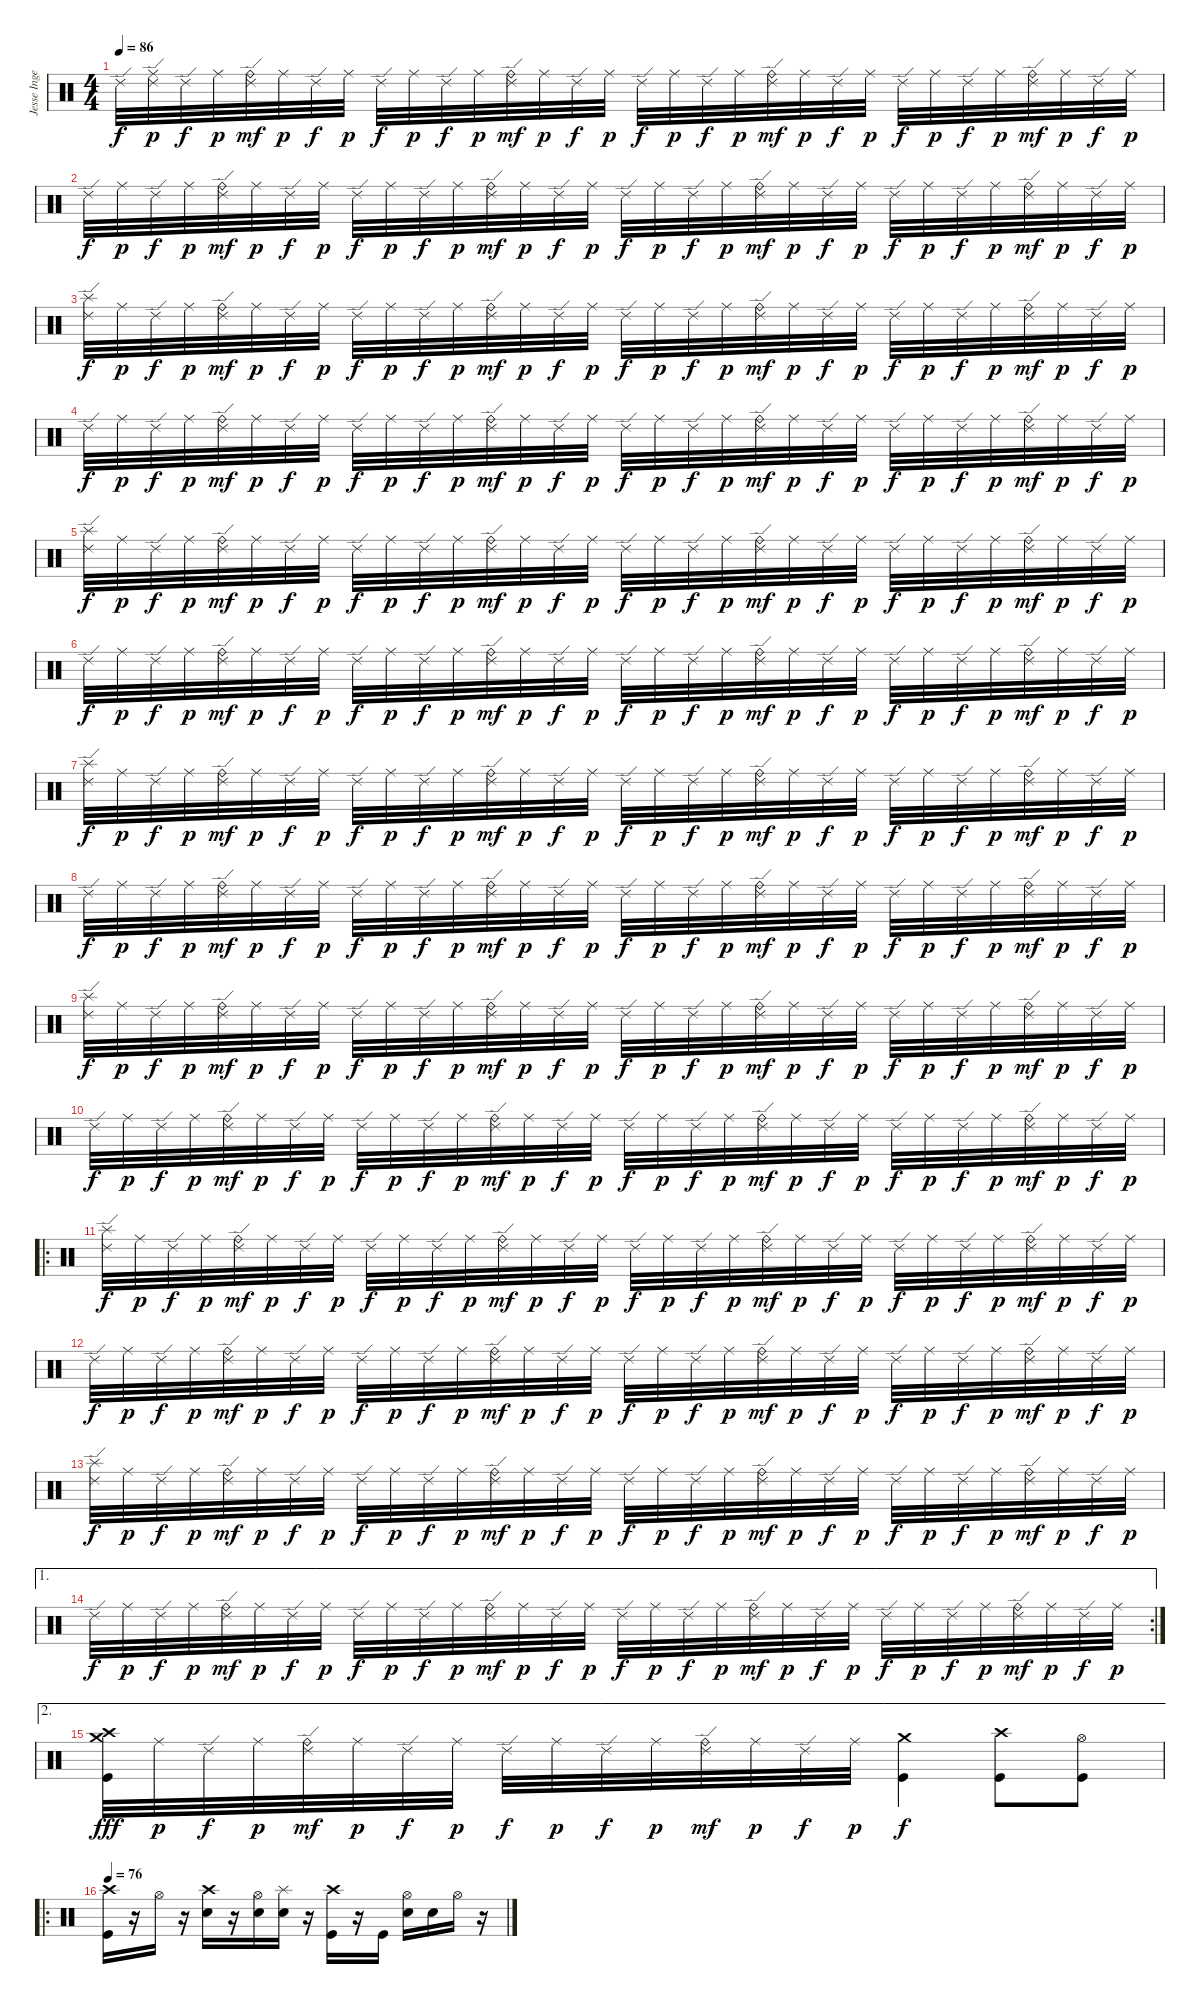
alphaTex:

\track ("Jesse Ingelevics" "Jesse Inge") {instrument percussion}
\staff {score}
\articulation defaults
\ts (4 4)
\tempo 86
\clef neutral
\ks c "Ride (edge) 2".32{dy f}
("Ride (edge) 2" "Ride (middle)").32{dy p} "Ride (edge) 2".32{dy f} "Ride (middle)".32{dy p} ("Ride (edge) 2" "Ride (bell)").32{dy mf} "Ride (middle)".32{dy p} "Ride (edge) 2".32{dy f} "Ride (middle)".32{dy p} "Ride (edge) 2".32{dy f} "Ride (middle)".32{dy p} "Ride (edge) 2".32{dy f} "Ride (middle)".32{dy p} ("Ride (edge) 2" "Ride (bell)").32{dy mf} "Ride (middle)".32{dy p} "Ride (edge) 2".32{dy f} "Ride (middle)".32{dy p} "Ride (edge) 2".32{dy f} "Ride (middle)".32{dy p} "Ride (edge) 2".32{dy f} "Ride (middle)".32{dy p} ("Ride (edge) 2" "Ride (bell)").32{dy mf} "Ride (middle)".32{dy p} "Ride (edge) 2".32{dy f} "Ride (middle)".32{dy p} "Ride (edge) 2".32{dy f} "Ride (middle)".32{dy p} "Ride (edge) 2".32{dy f} "Ride (middle)".32{dy p} ("Ride (edge) 2" "Ride (bell)").32{dy mf} "Ride (middle)".32{dy p} "Ride (edge) 2".32{dy f} "Ride (middle)".32{dy p} |
"Ride (edge) 2".32{dy f} "Ride (middle)".32{dy p} "Ride (edge) 2".32{dy f} "Ride (middle)".32{dy p} ("Ride (edge) 2" "Ride (bell)").32{dy mf} "Ride (middle)".32{dy p} "Ride (edge) 2".32{dy f} "Ride (middle)".32{dy p} "Ride (edge) 2".32{dy f} "Ride (middle)".32{dy p} "Ride (edge) 2".32{dy f} "Ride (middle)".32{dy p} ("Ride (edge) 2" "Ride (bell)").32{dy mf} "Ride (middle)".32{dy p} "Ride (edge) 2".32{dy f} "Ride (middle)".32{dy p} "Ride (edge) 2".32{dy f} "Ride (middle)".32{dy p} "Ride (edge) 2".32{dy f} "Ride (middle)".32{dy p} ("Ride (edge) 2" "Ride (bell)").32{dy mf} "Ride (middle)".32{dy p} "Ride (edge) 2".32{dy f} "Ride (middle)".32{dy p} "Ride (edge) 2".32{dy f} "Ride (middle)".32{dy p} "Ride (edge) 2".32{dy f} "Ride (middle)".32{dy p} ("Ride (edge) 2" "Ride (bell)").32{dy mf} "Ride (middle)".32{dy p} "Ride (edge) 2".32{dy f} "Ride (middle)".32{dy p} |
("Splash (hit)" "Ride (edge) 2").32{dy f} "Ride (middle)".32{dy p} "Ride (edge) 2".32{dy f} "Ride (middle)".32{dy p} ("Ride (edge) 2" "Ride (bell)").32{dy mf} "Ride (middle)".32{dy p} "Ride (edge) 2".32{dy f} "Ride (middle)".32{dy p} "Ride (edge) 2".32{dy f} "Ride (middle)".32{dy p} "Ride (edge) 2".32{dy f} "Ride (middle)".32{dy p} ("Ride (edge) 2" "Ride (bell)").32{dy mf} "Ride (middle)".32{dy p} "Ride (edge) 2".32{dy f} "Ride (middle)".32{dy p} "Ride (edge) 2".32{dy f} "Ride (middle)".32{dy p} "Ride (edge) 2".32{dy f} "Ride (middle)".32{dy p} ("Ride (edge) 2" "Ride (bell)").32{dy mf} "Ride (middle)".32{dy p} "Ride (edge) 2".32{dy f} "Ride (middle)".32{dy p} "Ride (edge) 2".32{dy f} "Ride (middle)".32{dy p} "Ride (edge) 2".32{dy f} "Ride (middle)".32{dy p} ("Ride (edge) 2" "Ride (bell)").32{dy mf} "Ride (middle)".32{dy p} "Ride (edge) 2".32{dy f} "Ride (middle)".32{dy p} |
"Ride (edge) 2".32{dy f} "Ride (middle)".32{dy p} "Ride (edge) 2".32{dy f} "Ride (middle)".32{dy p} ("Ride (edge) 2" "Ride (bell)").32{dy mf} "Ride (middle)".32{dy p} "Ride (edge) 2".32{dy f} "Ride (middle)".32{dy p} "Ride (edge) 2".32{dy f} "Ride (middle)".32{dy p} "Ride (edge) 2".32{dy f} "Ride (middle)".32{dy p} ("Ride (edge) 2" "Ride (bell)").32{dy mf} "Ride (middle)".32{dy p} "Ride (edge) 2".32{dy f} "Ride (middle)".32{dy p} "Ride (edge) 2".32{dy f} "Ride (middle)".32{dy p} "Ride (edge) 2".32{dy f} "Ride (middle)".32{dy p} ("Ride (edge) 2" "Ride (bell)").32{dy mf} "Ride (middle)".32{dy p} "Ride (edge) 2".32{dy f} "Ride (middle)".32{dy p} "Ride (edge) 2".32{dy f} "Ride (middle)".32{dy p} "Ride (edge) 2".32{dy f} "Ride (middle)".32{dy p} ("Ride (edge) 2" "Ride (bell)").32{dy mf} "Ride (middle)".32{dy p} "Ride (edge) 2".32{dy f} "Ride (middle)".32{dy p} |
("Splash (hit)" "Ride (edge) 2").32{dy f} "Ride (middle)".32{dy p} "Ride (edge) 2".32{dy f} "Ride (middle)".32{dy p} ("Ride (edge) 2" "Ride (bell)").32{dy mf} "Ride (middle)".32{dy p} "Ride (edge) 2".32{dy f} "Ride (middle)".32{dy p} "Ride (edge) 2".32{dy f} "Ride (middle)".32{dy p} "Ride (edge) 2".32{dy f} "Ride (middle)".32{dy p} ("Ride (edge) 2" "Ride (bell)").32{dy mf} "Ride (middle)".32{dy p} "Ride (edge) 2".32{dy f} "Ride (middle)".32{dy p} "Ride (edge) 2".32{dy f} "Ride (middle)".32{dy p} "Ride (edge) 2".32{dy f} "Ride (middle)".32{dy p} ("Ride (edge) 2" "Ride (bell)").32{dy mf} "Ride (middle)".32{dy p} "Ride (edge) 2".32{dy f} "Ride (middle)".32{dy p} "Ride (edge) 2".32{dy f} "Ride (middle)".32{dy p} "Ride (edge) 2".32{dy f} "Ride (middle)".32{dy p} ("Ride (edge) 2" "Ride (bell)").32{dy mf} "Ride (middle)".32{dy p} "Ride (edge) 2".32{dy f} "Ride (middle)".32{dy p} |
"Ride (edge) 2".32{dy f} "Ride (middle)".32{dy p} "Ride (edge) 2".32{dy f} "Ride (middle)".32{dy p} ("Ride (edge) 2" "Ride (bell)").32{dy mf} "Ride (middle)".32{dy p} "Ride (edge) 2".32{dy f} "Ride (middle)".32{dy p} "Ride (edge) 2".32{dy f} "Ride (middle)".32{dy p} "Ride (edge) 2".32{dy f} "Ride (middle)".32{dy p} ("Ride (edge) 2" "Ride (bell)").32{dy mf} "Ride (middle)".32{dy p} "Ride (edge) 2".32{dy f} "Ride (middle)".32{dy p} "Ride (edge) 2".32{dy f} "Ride (middle)".32{dy p} "Ride (edge) 2".32{dy f} "Ride (middle)".32{dy p} ("Ride (edge) 2" "Ride (bell)").32{dy mf} "Ride (middle)".32{dy p} "Ride (edge) 2".32{dy f} "Ride (middle)".32{dy p} "Ride (edge) 2".32{dy f} "Ride (middle)".32{dy p} "Ride (edge) 2".32{dy f} "Ride (middle)".32{dy p} ("Ride (edge) 2" "Ride (bell)").32{dy mf} "Ride (middle)".32{dy p} "Ride (edge) 2".32{dy f} "Ride (middle)".32{dy p} |
("Splash (hit)" "Ride (edge) 2").32{dy f} "Ride (middle)".32{dy p} "Ride (edge) 2".32{dy f} "Ride (middle)".32{dy p} ("Ride (edge) 2" "Ride (bell)").32{dy mf} "Ride (middle)".32{dy p} "Ride (edge) 2".32{dy f} "Ride (middle)".32{dy p} "Ride (edge) 2".32{dy f} "Ride (middle)".32{dy p} "Ride (edge) 2".32{dy f} "Ride (middle)".32{dy p} ("Ride (edge) 2" "Ride (bell)").32{dy mf} "Ride (middle)".32{dy p} "Ride (edge) 2".32{dy f} "Ride (middle)".32{dy p} "Ride (edge) 2".32{dy f} "Ride (middle)".32{dy p} "Ride (edge) 2".32{dy f} "Ride (middle)".32{dy p} ("Ride (edge) 2" "Ride (bell)").32{dy mf} "Ride (middle)".32{dy p} "Ride (edge) 2".32{dy f} "Ride (middle)".32{dy p} "Ride (edge) 2".32{dy f} "Ride (middle)".32{dy p} "Ride (edge) 2".32{dy f} "Ride (middle)".32{dy p} ("Ride (edge) 2" "Ride (bell)").32{dy mf} "Ride (middle)".32{dy p} "Ride (edge) 2".32{dy f} "Ride (middle)".32{dy p} |
"Ride (edge) 2".32{dy f} "Ride (middle)".32{dy p} "Ride (edge) 2".32{dy f} "Ride (middle)".32{dy p} ("Ride (edge) 2" "Ride (bell)").32{dy mf} "Ride (middle)".32{dy p} "Ride (edge) 2".32{dy f} "Ride (middle)".32{dy p} "Ride (edge) 2".32{dy f} "Ride (middle)".32{dy p} "Ride (edge) 2".32{dy f} "Ride (middle)".32{dy p} ("Ride (edge) 2" "Ride (bell)").32{dy mf} "Ride (middle)".32{dy p} "Ride (edge) 2".32{dy f} "Ride (middle)".32{dy p} "Ride (edge) 2".32{dy f} "Ride (middle)".32{dy p} "Ride (edge) 2".32{dy f} "Ride (middle)".32{dy p} ("Ride (edge) 2" "Ride (bell)").32{dy mf} "Ride (middle)".32{dy p} "Ride (edge) 2".32{dy f} "Ride (middle)".32{dy p} "Ride (edge) 2".32{dy f} "Ride (middle)".32{dy p} "Ride (edge) 2".32{dy f} "Ride (middle)".32{dy p} ("Ride (edge) 2" "Ride (bell)").32{dy mf} "Ride (middle)".32{dy p} "Ride (edge) 2".32{dy f} "Ride (middle)".32{dy p} |
("Splash (hit)" "Ride (edge) 2").32{dy f} "Ride (middle)".32{dy p} "Ride (edge) 2".32{dy f} "Ride (middle)".32{dy p} ("Ride (edge) 2" "Ride (bell)").32{dy mf} "Ride (middle)".32{dy p} "Ride (edge) 2".32{dy f} "Ride (middle)".32{dy p} "Ride (edge) 2".32{dy f} "Ride (middle)".32{dy p} "Ride (edge) 2".32{dy f} "Ride (middle)".32{dy p} ("Ride (edge) 2" "Ride (bell)").32{dy mf} "Ride (middle)".32{dy p} "Ride (edge) 2".32{dy f} "Ride (middle)".32{dy p} "Ride (edge) 2".32{dy f} "Ride (middle)".32{dy p} "Ride (edge) 2".32{dy f} "Ride (middle)".32{dy p} ("Ride (edge) 2" "Ride (bell)").32{dy mf} "Ride (middle)".32{dy p} "Ride (edge) 2".32{dy f} "Ride (middle)".32{dy p} "Ride (edge) 2".32{dy f} "Ride (middle)".32{dy p} "Ride (edge) 2".32{dy f} "Ride (middle)".32{dy p} ("Ride (edge) 2" "Ride (bell)").32{dy mf} "Ride (middle)".32{dy p} "Ride (edge) 2".32{dy f} "Ride (middle)".32{dy p} |
"Ride (edge) 2".32{dy f} "Ride (middle)".32{dy p} "Ride (edge) 2".32{dy f} "Ride (middle)".32{dy p} ("Ride (edge) 2" "Ride (bell)").32{dy mf} "Ride (middle)".32{dy p} "Ride (edge) 2".32{dy f} "Ride (middle)".32{dy p} "Ride (edge) 2".32{dy f} "Ride (middle)".32{dy p} "Ride (edge) 2".32{dy f} "Ride (middle)".32{dy p} ("Ride (edge) 2" "Ride (bell)").32{dy mf} "Ride (middle)".32{dy p} "Ride (edge) 2".32{dy f} "Ride (middle)".32{dy p} "Ride (edge) 2".32{dy f} "Ride (middle)".32{dy p} "Ride (edge) 2".32{dy f} "Ride (middle)".32{dy p} ("Ride (edge) 2" "Ride (bell)").32{dy mf} "Ride (middle)".32{dy p} "Ride (edge) 2".32{dy f} "Ride (middle)".32{dy p} "Ride (edge) 2".32{dy f} "Ride (middle)".32{dy p} "Ride (edge) 2".32{dy f} "Ride (middle)".32{dy p} ("Ride (edge) 2" "Ride (bell)").32{dy mf} "Ride (middle)".32{dy p} "Ride (edge) 2".32{dy f} "Ride (middle)".32{dy p} |
\ro
("Ride (edge) 2" "Splash (hit)").32{dy f} "Ride (middle)".32{dy p} "Ride (edge) 2".32{dy f} "Ride (middle)".32{dy p} ("Ride (edge) 2" "Ride (bell)").32{dy mf} "Ride (middle)".32{dy p} "Ride (edge) 2".32{dy f} "Ride (middle)".32{dy p} "Ride (edge) 2".32{dy f} "Ride (middle)".32{dy p} "Ride (edge) 2".32{dy f} "Ride (middle)".32{dy p} ("Ride (edge) 2" "Ride (bell)").32{dy mf} "Ride (middle)".32{dy p} "Ride (edge) 2".32{dy f} "Ride (middle)".32{dy p} "Ride (edge) 2".32{dy f} "Ride (middle)".32{dy p} "Ride (edge) 2".32{dy f} "Ride (middle)".32{dy p} ("Ride (edge) 2" "Ride (bell)").32{dy mf} "Ride (middle)".32{dy p} "Ride (edge) 2".32{dy f} "Ride (middle)".32{dy p} "Ride (edge) 2".32{dy f} "Ride (middle)".32{dy p} "Ride (edge) 2".32{dy f} "Ride (middle)".32{dy p} ("Ride (edge) 2" "Ride (bell)").32{dy mf} "Ride (middle)".32{dy p} "Ride (edge) 2".32{dy f} "Ride (middle)".32{dy p} |
"Ride (edge) 2".32{dy f} "Ride (middle)".32{dy p} "Ride (edge) 2".32{dy f} "Ride (middle)".32{dy p} ("Ride (edge) 2" "Ride (bell)").32{dy mf} "Ride (middle)".32{dy p} "Ride (edge) 2".32{dy f} "Ride (middle)".32{dy p} "Ride (edge) 2".32{dy f} "Ride (middle)".32{dy p} "Ride (edge) 2".32{dy f} "Ride (middle)".32{dy p} ("Ride (edge) 2" "Ride (bell)").32{dy mf} "Ride (middle)".32{dy p} "Ride (edge) 2".32{dy f} "Ride (middle)".32{dy p} "Ride (edge) 2".32{dy f} "Ride (middle)".32{dy p} "Ride (edge) 2".32{dy f} "Ride (middle)".32{dy p} ("Ride (edge) 2" "Ride (bell)").32{dy mf} "Ride (middle)".32{dy p} "Ride (edge) 2".32{dy f} "Ride (middle)".32{dy p} "Ride (edge) 2".32{dy f} "Ride (middle)".32{dy p} "Ride (edge) 2".32{dy f} "Ride (middle)".32{dy p} ("Ride (edge) 2" "Ride (bell)").32{dy mf} "Ride (middle)".32{dy p} "Ride (edge) 2".32{dy f} "Ride (middle)".32{dy p} |
("Ride (edge) 2" "Splash (hit)").32{dy f} "Ride (middle)".32{dy p} "Ride (edge) 2".32{dy f} "Ride (middle)".32{dy p} ("Ride (edge) 2" "Ride (bell)").32{dy mf} "Ride (middle)".32{dy p} "Ride (edge) 2".32{dy f} "Ride (middle)".32{dy p} "Ride (edge) 2".32{dy f} "Ride (middle)".32{dy p} "Ride (edge) 2".32{dy f} "Ride (middle)".32{dy p} ("Ride (edge) 2" "Ride (bell)").32{dy mf} "Ride (middle)".32{dy p} "Ride (edge) 2".32{dy f} "Ride (middle)".32{dy p} "Ride (edge) 2".32{dy f} "Ride (middle)".32{dy p} "Ride (edge) 2".32{dy f} "Ride (middle)".32{dy p} ("Ride (edge) 2" "Ride (bell)").32{dy mf} "Ride (middle)".32{dy p} "Ride (edge) 2".32{dy f} "Ride (middle)".32{dy p} "Ride (edge) 2".32{dy f} "Ride (middle)".32{dy p} "Ride (edge) 2".32{dy f} "Ride (middle)".32{dy p} ("Ride (edge) 2" "Ride (bell)").32{dy mf} "Ride (middle)".32{dy p} "Ride (edge) 2".32{dy f} "Ride (middle)".32{dy p} |
\ae 1
\rc 2 "Ride (edge) 2".32{dy f} "Ride (middle)".32{dy p} "Ride (edge) 2".32{dy f} "Ride (middle)".32{dy p}
("Ride (edge) 2" "Ride (bell)").32{dy mf} "Ride (middle)".32{dy p} "Ride (edge) 2".32{dy f} "Ride (middle)".32{dy p} "Ride (edge) 2".32{dy f} "Ride (middle)".32{dy p} "Ride (edge) 2".32{dy f} "Ride (middle)".32{dy p} ("Ride (edge) 2" "Ride (bell)").32{dy mf} "Ride (middle)".32{dy p} "Ride (edge) 2".32{dy f} "Ride (middle)".32{dy p} "Ride (edge) 2".32{dy f} "Ride (middle)".32{dy p} "Ride (edge) 2".32{dy f} "Ride (middle)".32{dy p} ("Ride (edge) 2" "Ride (bell)").32{dy mf} "Ride (middle)".32{dy p} "Ride (edge) 2".32{dy f} "Ride (middle)".32{dy p} "Ride (edge) 2".32{dy f} "Ride (middle)".32{dy p} "Ride (edge) 2".32{dy f} "Ride (middle)".32{dy p} ("Ride (edge) 2" "Ride (bell)").32{dy mf} "Ride (middle)".32{dy p} "Ride (edge) 2".32{dy f} "Ride (middle)".32{dy p} |
\ae 2
("Crash high (hit)" "Crash medium (hit)" "Kick (hit)").32{dy fff} "Ride (middle)".32{dy p} "Ride (edge) 2".32{dy f} "Ride (middle)".32{dy p} ("Ride (edge) 2" "Ride (bell)").32{dy mf} "Ride (middle)".32{dy p} "Ride (edge) 2".32{dy f} "Ride (middle)".32{dy p} "Ride (edge) 2".32{dy f} "Ride (middle)".32{dy p} "Ride (edge) 2".32{dy f} "Ride (middle)".32{dy p} ("Ride (edge) 2" "Ride (bell)").32{dy mf} "Ride (middle)".32{dy p} "Ride (edge) 2".32{dy f} "Ride (middle)".32{dy p} ("Crash medium (hit)" "Kick (hit)").4{dy f} ("Crash high (hit)" "Kick (hit)").8 ("Hi-Hat (open)" "Kick (hit)").8 |
\ro
\tempo 76
("Crash high (hit)" "Kick (hit)").16 r.16 "Hi-Hat (open)".16 r.16 ("Crash high (hit)" "Electric Snare (hit)").16 r.16 ("Hi-Hat (open)" "Electric Snare (hit)").16 ("Splash (hit)" "Electric Snare (hit)").16 r.16 ("Crash high (hit)" "Kick (hit)").16 r.16 "Kick (hit)".16 ("Hi-Hat (open)" "Electric Snare (hit)").16 "Electric Snare (hit)".16 "Hi-Hat (open)".16 r.16
